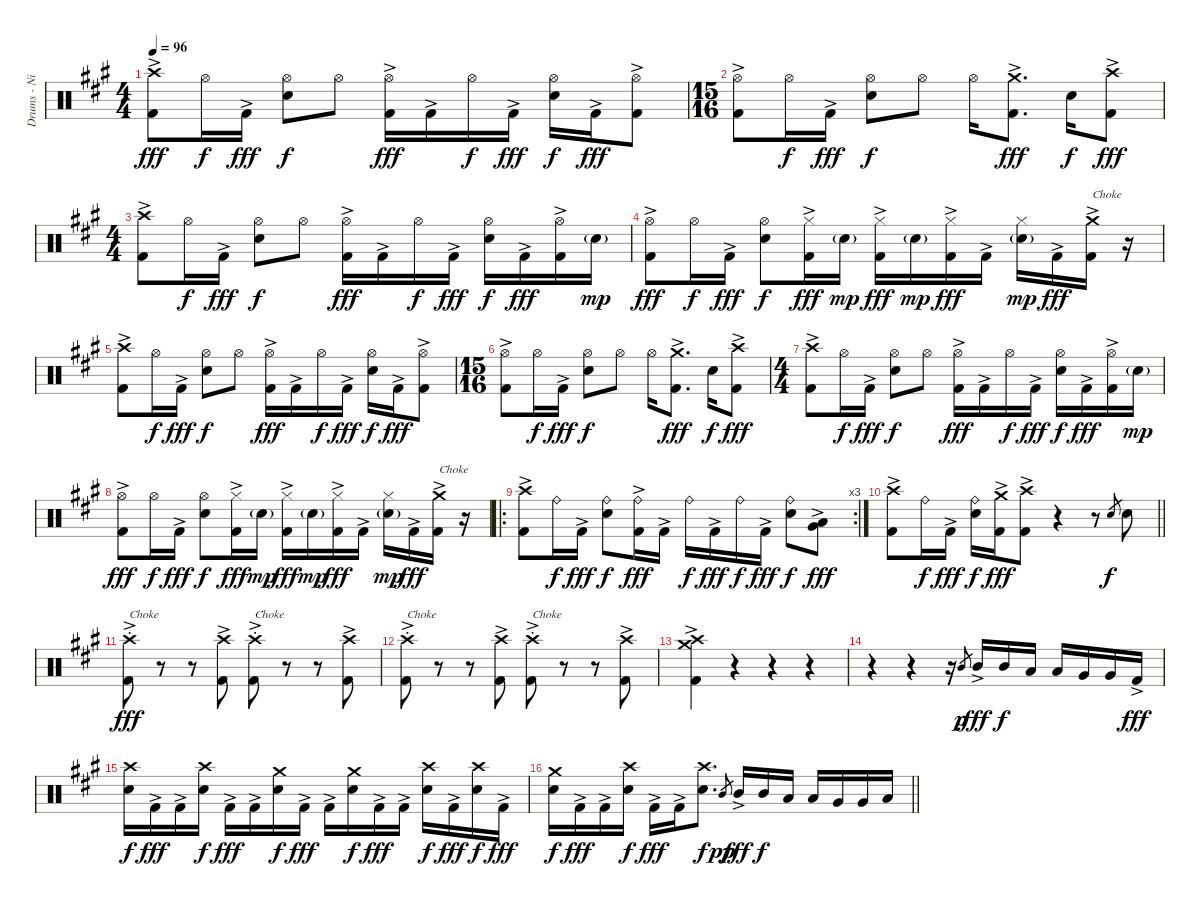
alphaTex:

\track ("Drums - Nick Menza" "Drums - Ni") {instrument percussion}
\staff {score}
\articulation defaults
\ts (4 4)
\tempo 96
\clef neutral
\ks f#minor
("Crash high (hit)" "Kick (hit) 2"{ac}).8{dy fff} "Hi-Hat (open)".16{dy f} "Kick (hit) 2"{ac}.16{dy fff} ("Hi-Hat (open)" "Snare (hit) 2").8{dy f} "Hi-Hat (open)".8 ("Hi-Hat (open)" "Kick (hit) 2"{ac}).16{dy fff} "Kick (hit) 2"{ac}.16 "Hi-Hat (open)".16{dy f} "Kick (hit) 2"{ac}.16{dy fff} ("Hi-Hat (open)" "Snare (hit) 2").16{dy f} "Kick (hit) 2"{ac}.16{dy fff} ("Hi-Hat (open)" "Kick (hit) 2"{ac}).8 |
\ts (15 16)
("Hi-Hat (open)" "Kick (hit) 2"{ac}).8 "Hi-Hat (open)".16{dy f} "Kick (hit) 2"{ac}.16{dy fff} ("Hi-Hat (open)" "Snare (hit) 2").8{dy f} "Hi-Hat (open)".8 "Hi-Hat (open)".16 ("Crash medium (hit)" "Kick (hit) 2"{ac}).8{d dy fff} "Snare (hit) 2".16{dy f} ("Crash high (hit)" "Kick (hit) 2"{ac}).8{dy fff} |
\ts (4 4)
("Crash high (hit)" "Kick (hit) 2"{ac}).8 "Hi-Hat (open)".16{dy f} "Kick (hit) 2"{ac}.16{dy fff} ("Hi-Hat (open)" "Snare (hit) 2").8{dy f} "Hi-Hat (open)".8 ("Hi-Hat (open)" "Kick (hit) 2"{ac}).16{dy fff} "Kick (hit) 2"{ac}.16 "Hi-Hat (open)".16{dy f} "Kick (hit) 2"{ac}.16{dy fff} ("Hi-Hat (open)" "Snare (hit) 2").16{dy f} "Kick (hit) 2"{ac}.16{dy fff} ("Hi-Hat (open)" "Kick (hit) 2"{ac}).16 "Snare (hit) 2"{g}.16{dy mp} |
("Hi-Hat (open)" "Kick (hit) 2"{ac}).8{dy fff} "Hi-Hat (open)".16{dy f} "Kick (hit) 2"{ac}.16{dy fff} ("Hi-Hat (open)" "Snare (hit) 2").8{dy f} ("Hi-Hat (closed)" "Kick (hit) 2"{ac}).16{dy fff} "Snare (hit) 2"{g}.16{dy mp} ("Hi-Hat (closed)" "Kick (hit) 2"{ac}).16{dy fff} "Snare (hit) 2"{g}.16{dy mp} ("Hi-Hat (closed)" "Kick (hit) 2"{ac}).16{dy fff} "Kick (hit) 2"{ac}.16 ("Hi-Hat (closed)" "Snare (hit) 2"{g}).16{dy mp} "Kick (hit) 2"{ac}.16{dy fff} ("Crash medium (hit)" "Kick (hit) 2"{ac}).16{txt "Choke"} r.16 |
("Crash high (hit)" "Kick (hit) 2"{ac}).8 "Hi-Hat (open)".16{dy f} "Kick (hit) 2"{ac}.16{dy fff} ("Hi-Hat (open)" "Snare (hit) 2").8{dy f} "Hi-Hat (open)".8 ("Hi-Hat (open)" "Kick (hit) 2"{ac}).16{dy fff} "Kick (hit) 2"{ac}.16 "Hi-Hat (open)".16{dy f} "Kick (hit) 2"{ac}.16{dy fff} ("Hi-Hat (open)" "Snare (hit) 2").16{dy f} "Kick (hit) 2"{ac}.16{dy fff} ("Hi-Hat (open)" "Kick (hit) 2"{ac}).8 |
\ts (15 16)
("Hi-Hat (open)" "Kick (hit) 2"{ac}).8 "Hi-Hat (open)".16{dy f} "Kick (hit) 2"{ac}.16{dy fff} ("Hi-Hat (open)" "Snare (hit) 2").8{dy f} "Hi-Hat (open)".8 "Hi-Hat (open)".16 ("Crash medium (hit)" "Kick (hit) 2"{ac}).8{d dy fff} "Snare (hit) 2".16{dy f} ("Crash high (hit)" "Kick (hit) 2"{ac}).8{dy fff} |
\ts (4 4)
("Crash high (hit)" "Kick (hit) 2"{ac}).8 "Hi-Hat (open)".16{dy f} "Kick (hit) 2"{ac}.16{dy fff} ("Hi-Hat (open)" "Snare (hit) 2").8{dy f} "Hi-Hat (open)".8 ("Hi-Hat (open)" "Kick (hit) 2"{ac}).16{dy fff} "Kick (hit) 2"{ac}.16 "Hi-Hat (open)".16{dy f} "Kick (hit) 2"{ac}.16{dy fff} ("Hi-Hat (open)" "Snare (hit) 2").16{dy f} "Kick (hit) 2"{ac}.16{dy fff} ("Hi-Hat (open)" "Kick (hit) 2"{ac}).16 "Snare (hit) 2"{g}.16{dy mp} |
("Hi-Hat (open)" "Kick (hit) 2"{ac}).8{dy fff} "Hi-Hat (open)".16{dy f} "Kick (hit) 2"{ac}.16{dy fff} ("Hi-Hat (open)" "Snare (hit) 2").8{dy f} ("Hi-Hat (closed)" "Kick (hit) 2"{ac}).16{dy fff} "Snare (hit) 2"{g}.16{dy mp} ("Hi-Hat (closed)" "Kick (hit) 2"{ac}).16{dy fff} "Snare (hit) 2"{g}.16{dy mp} ("Hi-Hat (closed)" "Kick (hit) 2"{ac}).16{dy fff} "Kick (hit) 2"{ac}.16 ("Hi-Hat (closed)" "Snare (hit) 2"{g}).16{dy mp} "Kick (hit) 2"{ac}.16{dy fff} ("Crash medium (hit)" "Kick (hit) 2"{ac}).16{txt "Choke"} r.16 |
\ro
\rc 3
("Crash high (hit)" "Kick (hit) 2"{ac}).8 "Ride (bell)".16{dy f} "Kick (hit) 2"{ac}.16{dy fff} ("Ride (bell)" "Snare (hit) 2").8{dy f} ("Ride (bell)" "Kick (hit) 2"{ac}).16{dy fff} "Kick (hit) 2"{ac}.16 "Ride (bell)".16{dy f} "Kick (hit) 2"{ac}.16{dy fff} "Ride (bell)".16{dy f} "Kick (hit) 2"{ac}.16{dy fff} ("Ride (bell)" "Snare (hit) 2").8{dy f} ("Low Tom (hit)"{ac} "Very Low Tom (hit)"{ac}).8{dy fff} |
\barLineRight lightlight
("Crash high (hit)" "Kick (hit) 2"{ac}).8 "Ride (bell)".16{dy f} "Kick (hit) 2"{ac}.16{dy fff} ("Ride (bell)" "Snare (hit) 2").16{dy f} ("Crash medium (hit)" "Kick (hit) 2"{ac}).16{dy fff} ("Crash high (hit)" "Kick (hit) 2"{ac}).8 r.4 r.8 "Snare (hit) 2".8{gr dy f} "Snare (hit) 2".8 |
("Crash high (hit)"{st} "Kick (hit) 2"{ac}).8{txt "Choke " dy fff} r.8 r.8 ("Crash high (hit)" "Kick (hit) 2"{ac}).8 ("Crash high (hit)"{st} "Kick (hit) 2"{ac}).8{txt "Choke"} r.8 r.8 ("Crash high (hit)" "Kick (hit) 2"{ac}).8 |
("Crash high (hit)"{st} "Kick (hit) 2"{ac}).8{txt "Choke"} r.8 r.8 ("Crash high (hit)" "Kick (hit) 2"{ac}).8 ("Crash high (hit)"{st} "Kick (hit) 2"{ac}).8{txt "Choke"} r.8 r.8 ("Crash high (hit)" "Kick (hit) 2"{ac}).8 |
("Crash high (hit)" "Crash medium (hit)" "Kick (hit) 2"{ac}).4 r.4 r.4 r.4 |
r.4 r.4 r.16 "Mid Tom (hit)".8{gr dy p} "Mid Tom (hit)"{ac}.16{dy fff} "Mid Tom (hit)".16{dy f} "Low Tom (hit)".16 "Low Tom (hit)".16 "Very Low Tom (hit)".16 "Very Low Tom (hit)".16 "Kick (hit) 2"{ac}.16{dy fff} |
("Crash high (hit)" "Snare (hit) 2").16{dy f} "Kick (hit) 2"{ac}.16{dy fff} "Kick (hit) 2"{ac}.16 ("Crash high (hit)" "Snare (hit) 2").16{dy f} "Kick (hit) 2"{ac}.16{dy fff} "Kick (hit) 2"{ac}.16 ("Crash medium (hit)" "Snare (hit) 2").16{dy f} "Kick (hit) 2"{ac}.16{dy fff} "Kick (hit) 2"{ac}.16 ("Crash medium (hit)" "Snare (hit) 2").16{dy f} "Kick (hit) 2"{ac}.16{dy fff} "Kick (hit) 2"{ac}.16 ("Crash high (hit)" "Snare (hit) 2").16{dy f} "Kick (hit) 2"{ac}.16{dy fff} ("Crash high (hit)" "Snare (hit) 2").16{dy f} "Kick (hit) 2"{ac}.16{dy fff} |
\barLineRight lightlight
("Crash medium (hit)" "Snare (hit) 2").16{dy f} "Kick (hit) 2"{ac}.16{dy fff} "Kick (hit) 2"{ac}.16 ("Crash high (hit)" "Snare (hit) 2").16{dy f} "Kick (hit) 2"{ac}.16{dy fff} "Kick (hit) 2"{ac}.16 ("Crash high (hit)" "Snare (hit) 2").8{d dy f} "Mid Tom (hit)".8{gr dy pp} "Mid Tom (hit)"{ac}.16{dy fff} "Mid Tom (hit)".16{dy f} "Low Tom (hit)".16 "Low Tom (hit)".16 "Very Low Tom (hit)".16 "Very Low Tom (hit)".16 "Low Floor Tom (hit)".16
